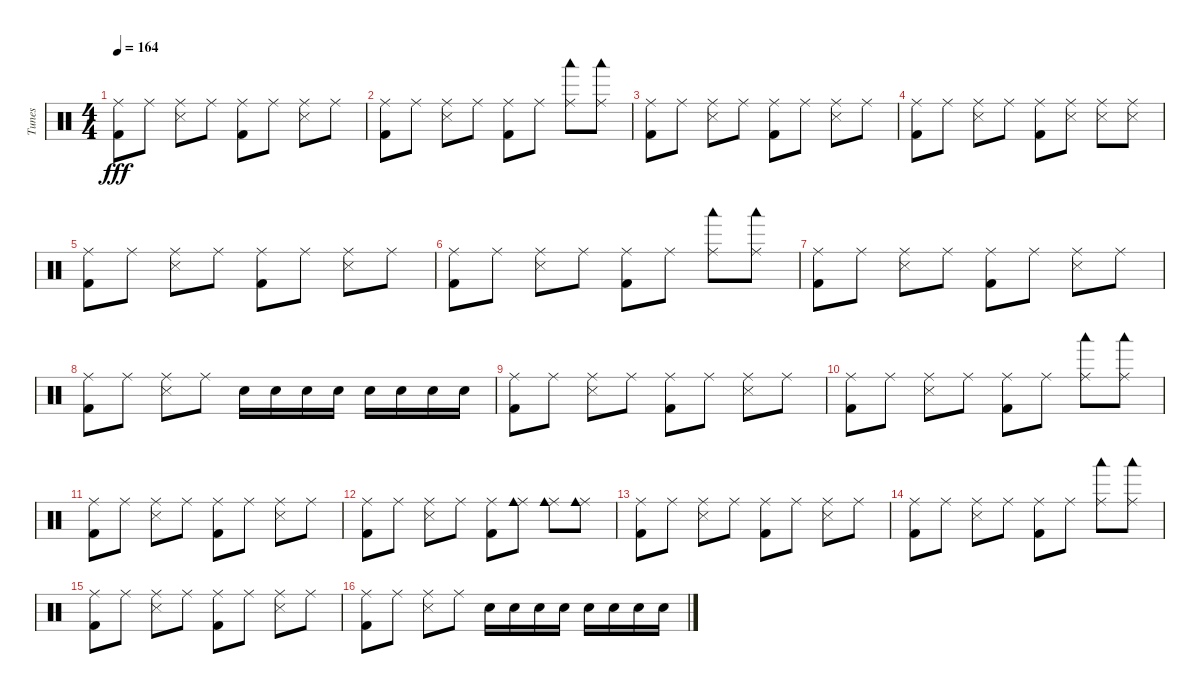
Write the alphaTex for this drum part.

\track ("Tunes" "Tunes") {instrument percussion}
\staff {score}
\articulation defaults
\ts (4 4)
\tempo 164
\clef neutral
\ks c
("Ride (middle)" "Kick (hit) 2").8{dy fff} "Ride (middle)".8 ("Ride (middle)" "Snare (side stick) 3").8 "Ride (middle)".8 ("Ride (middle)" "Kick (hit) 2").8 "Ride (middle)".8 ("Ride (middle)" "Snare (side stick) 3").8 "Ride (middle)".8 |
("Ride (middle)" "Kick (hit) 2").8 "Ride (middle)".8 ("Ride (middle)" "Snare (side stick) 3").8 "Ride (middle)".8 ("Ride (middle)" "Kick (hit) 2").8 "Ride (middle)".8 ("Ride (middle)" "Woodblock low (hit)").8 ("Ride (middle)" "Woodblock low (hit)").8 |
("Ride (middle)" "Kick (hit) 2").8 "Ride (middle)".8 ("Ride (middle)" "Snare (side stick) 3").8 "Ride (middle)".8 ("Ride (middle)" "Kick (hit) 2").8 "Ride (middle)".8 ("Ride (middle)" "Snare (side stick) 3").8 "Ride (middle)".8 |
("Ride (middle)" "Kick (hit) 2").8 "Ride (middle)".8 ("Ride (middle)" "Snare (side stick) 3").8 "Ride (middle)".8 ("Ride (middle)" "Kick (hit) 2").8 ("Ride (middle)" "Snare (side stick) 3").8 ("Ride (middle)" "Snare (side stick) 3").8 ("Ride (middle)" "Snare (side stick) 3").8 |
("Ride (middle)" "Kick (hit) 2").8 "Ride (middle)".8 ("Ride (middle)" "Snare (side stick) 3").8 "Ride (middle)".8 ("Ride (middle)" "Kick (hit) 2").8 "Ride (middle)".8 ("Ride (middle)" "Snare (side stick) 3").8 "Ride (middle)".8 |
("Ride (middle)" "Kick (hit) 2").8 "Ride (middle)".8 ("Ride (middle)" "Snare (side stick) 3").8 "Ride (middle)".8 ("Ride (middle)" "Kick (hit) 2").8 "Ride (middle)".8 ("Ride (middle)" "Woodblock low (hit)").8 ("Ride (middle)" "Woodblock low (hit)").8 |
("Ride (middle)" "Kick (hit) 2").8 "Ride (middle)".8 ("Ride (middle)" "Snare (side stick) 3").8 "Ride (middle)".8 ("Ride (middle)" "Kick (hit) 2").8 "Ride (middle)".8 ("Ride (middle)" "Snare (side stick) 3").8 "Ride (middle)".8 |
("Ride (middle)" "Kick (hit) 2").8 "Ride (middle)".8 ("Ride (middle)" "Snare (side stick) 3").8 "Ride (middle)".8 "Electric Snare (hit)".16 "Electric Snare (hit)".16 "Electric Snare (hit)".16 "Electric Snare (hit)".16 "Electric Snare (hit)".16 "Electric Snare (hit)".16 "Electric Snare (hit)".16 "Electric Snare (hit)".16 |
("Ride (middle)" "Kick (hit) 2").8 "Ride (middle)".8 ("Ride (middle)" "Snare (side stick) 3").8 "Ride (middle)".8 ("Ride (middle)" "Kick (hit) 2").8 "Ride (middle)".8 ("Ride (middle)" "Snare (side stick) 3").8 "Ride (middle)".8 |
("Ride (middle)" "Kick (hit) 2").8 "Ride (middle)".8 ("Ride (middle)" "Snare (side stick) 3").8 "Ride (middle)".8 ("Ride (middle)" "Kick (hit) 2").8 "Ride (middle)".8 ("Ride (middle)" "Woodblock low (hit)").8 ("Ride (middle)" "Woodblock low (hit)").8 |
("Ride (middle)" "Kick (hit) 2").8 "Ride (middle)".8 ("Ride (middle)" "Snare (side stick) 3").8 "Ride (middle)".8 ("Ride (middle)" "Kick (hit) 2").8 "Ride (middle)".8 ("Ride (middle)" "Snare (side stick) 3").8 "Ride (middle)".8 |
("Ride (middle)" "Kick (hit) 2").8 "Ride (middle)".8 ("Ride (middle)" "Snare (side stick) 3").8 "Ride (middle)".8 ("Ride (middle)" "Kick (hit) 2").8 ("Ride (middle)" "Cowbell medium (hit)").8 ("Ride (middle)" "Cowbell medium (hit)").8 ("Ride (middle)" "Cowbell medium (hit)").8 |
("Ride (middle)" "Kick (hit) 2").8 "Ride (middle)".8 ("Ride (middle)" "Snare (side stick) 3").8 "Ride (middle)".8 ("Ride (middle)" "Kick (hit) 2").8 "Ride (middle)".8 ("Ride (middle)" "Snare (side stick) 3").8 "Ride (middle)".8 |
("Ride (middle)" "Kick (hit) 2").8 "Ride (middle)".8 ("Ride (middle)" "Snare (side stick) 3").8 "Ride (middle)".8 ("Ride (middle)" "Kick (hit) 2").8 "Ride (middle)".8 ("Ride (middle)" "Woodblock low (hit)").8 ("Ride (middle)" "Woodblock low (hit)").8 |
("Ride (middle)" "Kick (hit) 2").8 "Ride (middle)".8 ("Ride (middle)" "Snare (side stick) 3").8 "Ride (middle)".8 ("Ride (middle)" "Kick (hit) 2").8 "Ride (middle)".8 ("Ride (middle)" "Snare (side stick) 3").8 "Ride (middle)".8 |
("Ride (middle)" "Kick (hit) 2").8 "Ride (middle)".8 ("Ride (middle)" "Snare (side stick) 3").8 "Ride (middle)".8 "Electric Snare (hit)".16 "Electric Snare (hit)".16 "Electric Snare (hit)".16 "Electric Snare (hit)".16 "Electric Snare (hit)".16 "Electric Snare (hit)".16 "Electric Snare (hit)".16 "Electric Snare (hit)".16
